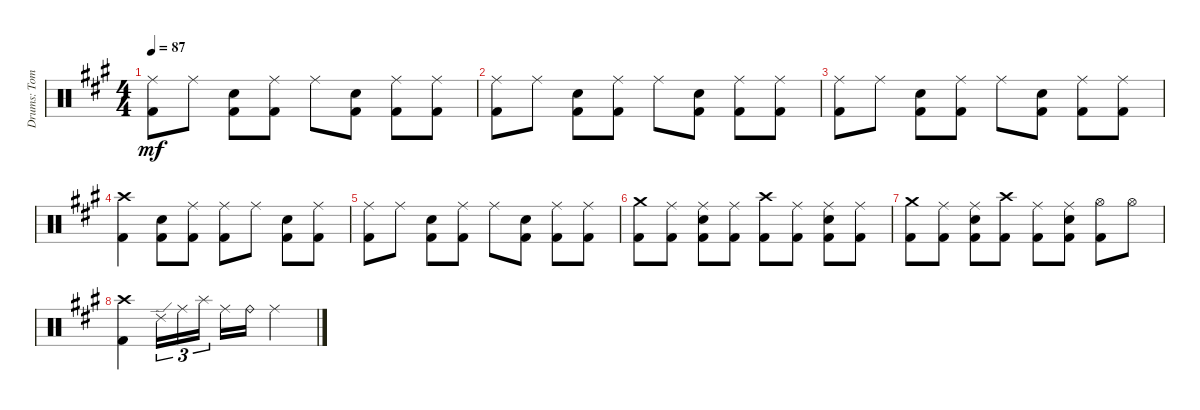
\track ("Drums: Tom" "Drums: Tom") {instrument percussion}
\staff {score}
\articulation defaults
\ts (4 4)
\tempo 87
\clef neutral
\ks a
("Ride (middle)" "Kick (hit) 2").8{dy mf} "Ride (middle)".8 ("Electric Snare (hit)" "Kick (hit) 2").8 ("Ride (middle)" "Kick (hit) 2").8 "Ride (middle)".8 ("Electric Snare (hit)" "Kick (hit) 2").8 ("Ride (middle)" "Kick (hit) 2").8 ("Ride (middle)" "Kick (hit) 2").8 |
("Ride (middle)" "Kick (hit) 2").8 "Ride (middle)".8 ("Electric Snare (hit)" "Kick (hit) 2").8 ("Ride (middle)" "Kick (hit) 2").8 "Ride (middle)".8 ("Electric Snare (hit)" "Kick (hit) 2").8 ("Ride (middle)" "Kick (hit) 2").8 ("Ride (middle)" "Kick (hit) 2").8 |
("Ride (middle)" "Kick (hit) 2").8 "Ride (middle)".8 ("Electric Snare (hit)" "Kick (hit) 2").8 ("Ride (middle)" "Kick (hit) 2").8 "Ride (middle)".8 ("Electric Snare (hit)" "Kick (hit) 2").8 ("Ride (middle)" "Kick (hit) 2").8 ("Ride (middle)" "Kick (hit) 2").8 |
("Crash high (hit)" "Kick (hit) 2").4 ("Electric Snare (hit)" "Kick (hit) 2").8 ("Ride (middle)" "Kick (hit) 2").8 ("Ride (middle)" "Kick (hit) 2").8 "Ride (middle)".8 ("Electric Snare (hit)" "Kick (hit) 2").8 ("Ride (middle)" "Kick (hit) 2").8 |
("Ride (middle)" "Kick (hit) 2").8 "Ride (middle)".8 ("Electric Snare (hit)" "Kick (hit) 2").8 ("Ride (middle)" "Kick (hit) 2").8 "Ride (middle)".8 ("Electric Snare (hit)" "Kick (hit) 2").8 ("Ride (middle)" "Kick (hit) 2").8 ("Ride (middle)" "Kick (hit) 2").8 |
("Crash medium (hit)" "Kick (hit) 2").8 ("Ride (middle)" "Kick (hit) 2").8 ("Ride (middle)" "Snare (hit) 2" "Kick (hit) 2").8 ("Ride (middle)" "Kick (hit) 2").8 ("Crash high (hit)" "Kick (hit) 2").8 ("Ride (middle)" "Kick (hit) 2").8 ("Ride (middle)" "Snare (hit) 2" "Kick (hit) 2").8 ("Ride (middle)" "Kick (hit) 2").8 |
("Crash medium (hit)" "Kick (hit) 2").8 ("Ride (middle)" "Kick (hit) 2").8 ("Ride (middle)" "Snare (hit) 2" "Kick (hit) 2").8 ("Crash high (hit)" "Kick (hit) 2").8 ("Ride (middle)" "Kick (hit) 2").8 ("Ride (middle)" "Snare (hit) 2" "Kick (hit) 2").8 ("Hi-Hat (open)" "Kick (hit) 2").8 "Hi-Hat (open)".8 |
("Crash high (hit)" "Kick (hit) 2").4 "Ride (edge) 2".16{tu (3 2)} "Ride (middle)".16{tu (3 2)} "Splash (hit)".16{tu (3 2) beam splitsecondary} "Ride (middle)".16 "Ride (bell)".16 "Ride (middle)".2
